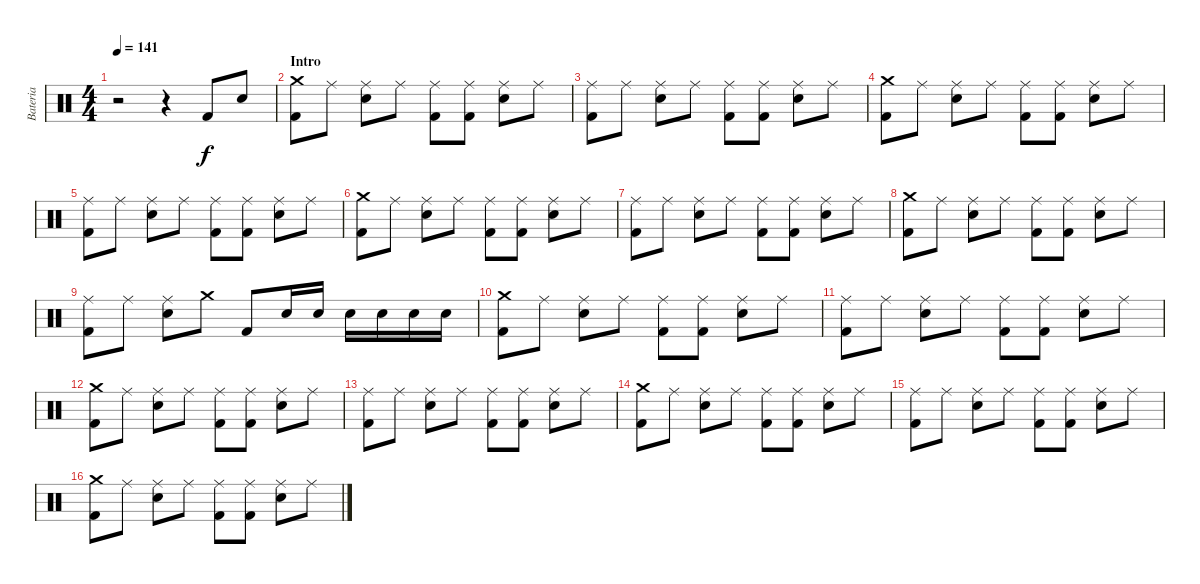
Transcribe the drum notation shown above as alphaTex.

\track ("Bateria" "Bateria") {instrument percussion}
\staff {score}
\articulation defaults
\ts (4 4)
\tempo 141
\clef neutral
\ks c
r.2{dy f} r.4 "Kick (hit) 2".8 "Electric Snare (hit)".8 |
\section ("" "Intro")
("Crash medium (hit)" "Kick (hit) 2").8 "Ride (middle)".8 ("Ride (middle)" "Electric Snare (hit)").8 "Ride (middle)".8 ("Ride (middle)" "Kick (hit) 2").8 ("Ride (middle)" "Kick (hit) 2").8 ("Ride (middle)" "Electric Snare (hit)").8 "Ride (middle)".8 |
("Ride (middle)" "Kick (hit) 2").8 "Ride (middle)".8 ("Ride (middle)" "Electric Snare (hit)").8 "Ride (middle)".8 ("Ride (middle)" "Kick (hit) 2").8 ("Ride (middle)" "Kick (hit) 2").8 ("Ride (middle)" "Electric Snare (hit)").8 "Ride (middle)".8 |
("Crash medium (hit)" "Kick (hit) 2").8 "Ride (middle)".8 ("Ride (middle)" "Electric Snare (hit)").8 "Ride (middle)".8 ("Ride (middle)" "Kick (hit) 2").8 ("Ride (middle)" "Kick (hit) 2").8 ("Ride (middle)" "Electric Snare (hit)").8 "Ride (middle)".8 |
("Ride (middle)" "Kick (hit) 2").8 "Ride (middle)".8 ("Ride (middle)" "Electric Snare (hit)").8 "Ride (middle)".8 ("Ride (middle)" "Kick (hit) 2").8 ("Ride (middle)" "Kick (hit) 2").8 ("Ride (middle)" "Electric Snare (hit)").8 "Ride (middle)".8 |
("Crash medium (hit)" "Kick (hit) 2").8 "Ride (middle)".8 ("Ride (middle)" "Electric Snare (hit)").8 "Ride (middle)".8 ("Ride (middle)" "Kick (hit) 2").8 ("Ride (middle)" "Kick (hit) 2").8 ("Ride (middle)" "Electric Snare (hit)").8 "Ride (middle)".8 |
("Ride (middle)" "Kick (hit) 2").8 "Ride (middle)".8 ("Ride (middle)" "Electric Snare (hit)").8 "Ride (middle)".8 ("Ride (middle)" "Kick (hit) 2").8 ("Ride (middle)" "Kick (hit) 2").8 ("Ride (middle)" "Electric Snare (hit)").8 "Ride (middle)".8 |
("Crash medium (hit)" "Kick (hit) 2").8 "Ride (middle)".8 ("Ride (middle)" "Electric Snare (hit)").8 "Ride (middle)".8 ("Ride (middle)" "Kick (hit) 2").8 ("Ride (middle)" "Kick (hit) 2").8 ("Ride (middle)" "Electric Snare (hit)").8 "Ride (middle)".8 |
("Ride (middle)" "Kick (hit) 2").8 "Ride (middle)".8 ("Ride (middle)" "Electric Snare (hit)").8 "Crash medium (hit)".8 "Kick (hit) 2".8 "Electric Snare (hit)".16 "Electric Snare (hit)".16 "Electric Snare (hit)".16 "Electric Snare (hit)".16 "Electric Snare (hit)".16 "Electric Snare (hit)".16 |
("Crash medium (hit)" "Kick (hit) 2").8 "Ride (middle)".8 ("Ride (middle)" "Electric Snare (hit)").8 "Ride (middle)".8 ("Ride (middle)" "Kick (hit) 2").8 ("Ride (middle)" "Kick (hit) 2").8 ("Ride (middle)" "Electric Snare (hit)").8 "Ride (middle)".8 |
("Ride (middle)" "Kick (hit) 2").8 "Ride (middle)".8 ("Ride (middle)" "Electric Snare (hit)").8 "Ride (middle)".8 ("Ride (middle)" "Kick (hit) 2").8 ("Ride (middle)" "Kick (hit) 2").8 ("Ride (middle)" "Electric Snare (hit)").8 "Ride (middle)".8 |
("Crash medium (hit)" "Kick (hit) 2").8 "Ride (middle)".8 ("Ride (middle)" "Electric Snare (hit)").8 "Ride (middle)".8 ("Ride (middle)" "Kick (hit) 2").8 ("Ride (middle)" "Kick (hit) 2").8 ("Ride (middle)" "Electric Snare (hit)").8 "Ride (middle)".8 |
("Ride (middle)" "Kick (hit) 2").8 "Ride (middle)".8 ("Ride (middle)" "Electric Snare (hit)").8 "Ride (middle)".8 ("Ride (middle)" "Kick (hit) 2").8 ("Ride (middle)" "Kick (hit) 2").8 ("Ride (middle)" "Electric Snare (hit)").8 "Ride (middle)".8 |
("Crash medium (hit)" "Kick (hit) 2").8 "Ride (middle)".8 ("Ride (middle)" "Electric Snare (hit)").8 "Ride (middle)".8 ("Ride (middle)" "Kick (hit) 2").8 ("Ride (middle)" "Kick (hit) 2").8 ("Ride (middle)" "Electric Snare (hit)").8 "Ride (middle)".8 |
("Ride (middle)" "Kick (hit) 2").8 "Ride (middle)".8 ("Ride (middle)" "Electric Snare (hit)").8 "Ride (middle)".8 ("Ride (middle)" "Kick (hit) 2").8 ("Ride (middle)" "Kick (hit) 2").8 ("Ride (middle)" "Electric Snare (hit)").8 "Ride (middle)".8 |
("Crash medium (hit)" "Kick (hit) 2").8 "Ride (middle)".8 ("Ride (middle)" "Electric Snare (hit)").8 "Ride (middle)".8 ("Ride (middle)" "Kick (hit) 2").8 ("Ride (middle)" "Kick (hit) 2").8 ("Ride (middle)" "Electric Snare (hit)").8 "Ride (middle)".8
